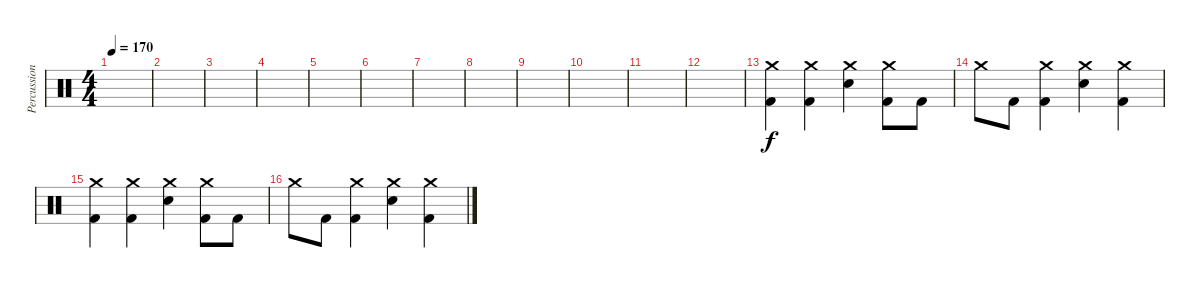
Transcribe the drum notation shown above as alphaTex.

\track ("Percussions" "Percussion") {instrument percussion}
\staff {score}
\articulation defaults
\ts (4 4)
\tempo 170
\clef neutral
\ks c
|
|
|
|
|
|
|
|
|
|
|
|
("Crash medium (hit)" "Kick (hit) 2").4 ("Crash medium (hit)" "Kick (hit) 2").4 ("Crash medium (hit)" "Electric Snare (hit)").4 ("Crash medium (hit)" "Kick (hit) 2").8 "Kick (hit) 2".8 |
"Crash medium (hit)".8 "Kick (hit) 2".8 ("Crash medium (hit)" "Kick (hit) 2").4 ("Crash medium (hit)" "Electric Snare (hit)").4 ("Crash medium (hit)" "Kick (hit) 2").4 |
("Crash medium (hit)" "Kick (hit) 2").4 ("Crash medium (hit)" "Kick (hit) 2").4 ("Crash medium (hit)" "Electric Snare (hit)").4 ("Crash medium (hit)" "Kick (hit) 2").8 "Kick (hit) 2".8 |
"Crash medium (hit)".8 "Kick (hit) 2".8 ("Crash medium (hit)" "Kick (hit) 2").4 ("Crash medium (hit)" "Electric Snare (hit)").4 ("Crash medium (hit)" "Kick (hit) 2").4
